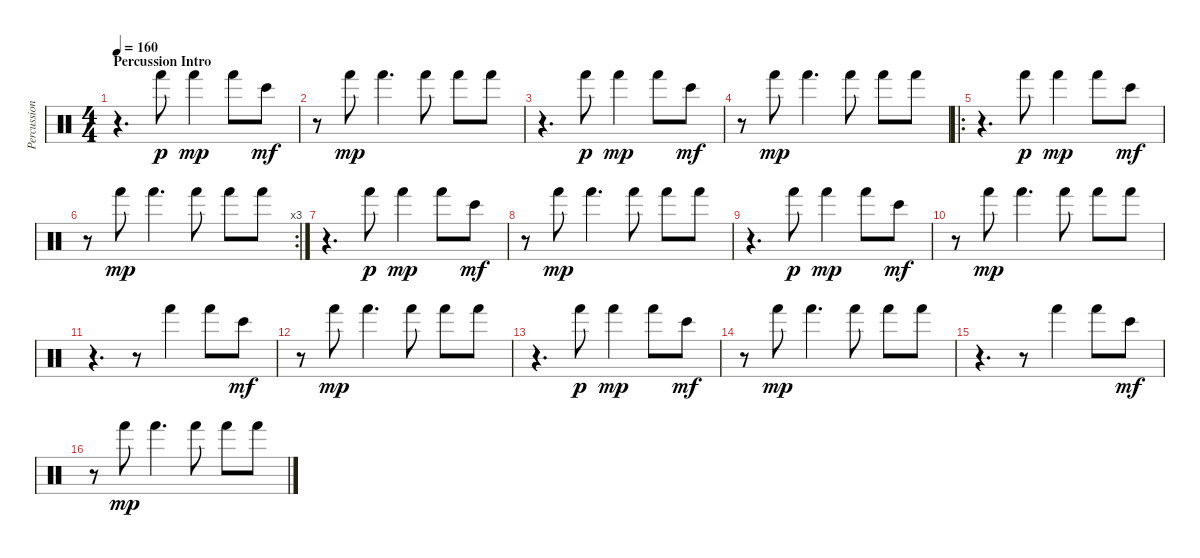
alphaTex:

\track ("Percussion" "Percussion") {instrument percussion}
\staff {score}
\articulation defaults
\ts (4 4)
\section ("" "Percussion Intro")
\tempo 160
\clef neutral
\ks c
r.4{d dy p} "Hand (hit)".8 "Hand (hit)".4{dy mp} "Hand (hit)".8 "Bongo High (hit)".8{dy mf} |
r.8 "Hand (hit)".8{dy mp} "Hand (hit)".4{d} "Hand (hit)".8 "Hand (hit)".8 "Hand (hit)".8 |
r.4{d} "Hand (hit)".8{dy p} "Hand (hit)".4{dy mp} "Hand (hit)".8 "Bongo High (hit)".8{dy mf} |
r.8 "Hand (hit)".8{dy mp} "Hand (hit)".4{d} "Hand (hit)".8 "Hand (hit)".8 "Hand (hit)".8 |
\ro
r.4{d} "Hand (hit)".8{dy p} "Hand (hit)".4{dy mp} "Hand (hit)".8 "Bongo High (hit)".8{dy mf} |
\rc 3
r.8 "Hand (hit)".8{dy mp} "Hand (hit)".4{d} "Hand (hit)".8 "Hand (hit)".8 "Hand (hit)".8 |
r.4{d} "Hand (hit)".8{dy p} "Hand (hit)".4{dy mp} "Hand (hit)".8 "Bongo High (hit)".8{dy mf} |
r.8 "Hand (hit)".8{dy mp} "Hand (hit)".4{d} "Hand (hit)".8 "Hand (hit)".8 "Hand (hit)".8 |
r.4{d} "Hand (hit)".8{dy p} "Hand (hit)".4{dy mp} "Hand (hit)".8 "Bongo High (hit)".8{dy mf} |
r.8 "Hand (hit)".8{dy mp} "Hand (hit)".4{d} "Hand (hit)".8 "Hand (hit)".8 "Hand (hit)".8 |
r.4{d} r.8 "Hand (hit)".4 "Hand (hit)".8 "Bongo High (hit)".8{dy mf} |
r.8 "Hand (hit)".8{dy mp} "Hand (hit)".4{d} "Hand (hit)".8 "Hand (hit)".8 "Hand (hit)".8 |
r.4{d} "Hand (hit)".8{dy p} "Hand (hit)".4{dy mp} "Hand (hit)".8 "Bongo High (hit)".8{dy mf} |
r.8 "Hand (hit)".8{dy mp} "Hand (hit)".4{d} "Hand (hit)".8 "Hand (hit)".8 "Hand (hit)".8 |
r.4{d} r.8 "Hand (hit)".4 "Hand (hit)".8 "Bongo High (hit)".8{dy mf} |
r.8 "Hand (hit)".8{dy mp} "Hand (hit)".4{d} "Hand (hit)".8 "Hand (hit)".8 "Hand (hit)".8
